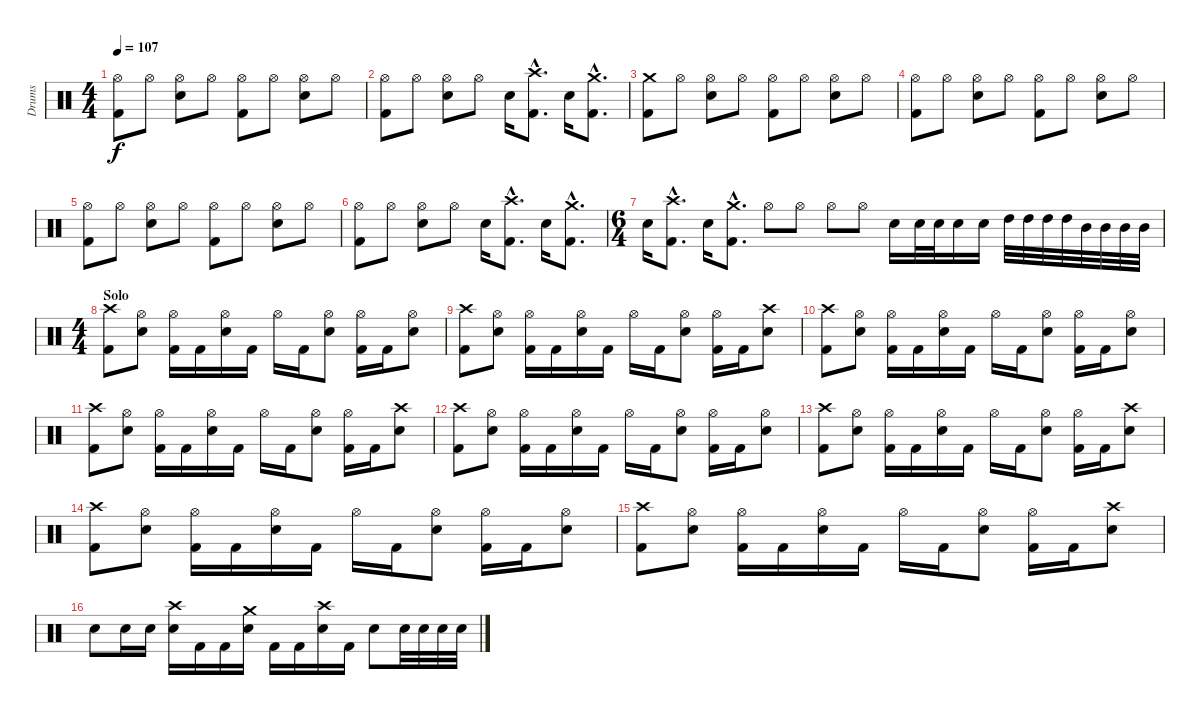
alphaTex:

\track ("Drums" "Drums") {instrument percussion}
\staff {score}
\articulation defaults
\ts (4 4)
\tempo 107
\clef neutral
\ks c
("Hi-Hat (open)" "Kick (hit) 2").8{dy f} "Hi-Hat (open)".8 ("Hi-Hat (open)" "Electric Snare (hit)").8 "Hi-Hat (open)".8 ("Hi-Hat (open)" "Kick (hit) 2").8 "Hi-Hat (open)".8 ("Hi-Hat (open)" "Electric Snare (hit)").8 "Hi-Hat (open)".8 |
("Hi-Hat (open)" "Kick (hit) 2").8 "Hi-Hat (open)".8 ("Hi-Hat (open)" "Electric Snare (hit)").8 "Hi-Hat (open)".8 "Electric Snare (hit)".16 ("Crash high (hit)"{hac} "Kick (hit) 2"{hac}).8{d} "Electric Snare (hit)".16 ("Crash medium (hit)"{hac} "Kick (hit) 2"{hac}).8{d} |
("Crash medium (hit)" "Kick (hit) 2").8 "Hi-Hat (open)".8 ("Hi-Hat (open)" "Electric Snare (hit)").8 "Hi-Hat (open)".8 ("Hi-Hat (open)" "Kick (hit) 2").8 "Hi-Hat (open)".8 ("Hi-Hat (open)" "Electric Snare (hit)").8 "Hi-Hat (open)".8 |
("Hi-Hat (open)" "Kick (hit) 2").8 "Hi-Hat (open)".8 ("Hi-Hat (open)" "Electric Snare (hit)").8 "Hi-Hat (open)".8 ("Hi-Hat (open)" "Kick (hit) 2").8 "Hi-Hat (open)".8 ("Hi-Hat (open)" "Electric Snare (hit)").8 "Hi-Hat (open)".8 |
("Hi-Hat (open)" "Kick (hit) 2").8 "Hi-Hat (open)".8 ("Hi-Hat (open)" "Electric Snare (hit)").8 "Hi-Hat (open)".8 ("Hi-Hat (open)" "Kick (hit) 2").8 "Hi-Hat (open)".8 ("Hi-Hat (open)" "Electric Snare (hit)").8 "Hi-Hat (open)".8 |
("Hi-Hat (open)" "Kick (hit) 2").8 "Hi-Hat (open)".8 ("Hi-Hat (open)" "Electric Snare (hit)").8 "Hi-Hat (open)".8 "Electric Snare (hit)".16 ("Crash high (hit)"{hac} "Kick (hit) 2"{hac}).8{d} "Electric Snare (hit)".16 ("Crash medium (hit)"{hac} "Kick (hit) 2"{hac}).8{d} |
\ts (6 4)
"Electric Snare (hit)".16 ("Crash high (hit)"{hac} "Kick (hit) 2"{hac}).8{d} "Electric Snare (hit)".16 ("Crash medium (hit)"{hac} "Kick (hit) 2"{hac}).8{d} "Hi-Hat (open)".8 "Hi-Hat (open)".8 "Hi-Hat (open)".8 "Hi-Hat (open)".8 "Electric Snare (hit)".16 "Electric Snare (hit)".32 "Electric Snare (hit)".32 "Electric Snare (hit)".16 "Electric Snare (hit)".16 "High Tom (hit)".32 "High Tom (hit)".32 "High Tom (hit)".32 "High Tom (hit)".32 "Mid Tom (hit)".32 "Mid Tom (hit)".32 "Mid Tom (hit)".32 "Mid Tom (hit)".32 |
\ts (4 4)
\section ("" "Solo")
("Crash high (hit)" "Kick (hit) 2").8 ("Hi-Hat (open)" "Electric Snare (hit)").8 ("Hi-Hat (open)" "Kick (hit) 2").16 "Kick (hit) 2".16 ("Hi-Hat (open)" "Electric Snare (hit)").16 "Kick (hit) 2".16 "Hi-Hat (open)".16 "Kick (hit) 2".16 ("Hi-Hat (open)" "Electric Snare (hit)").8 ("Hi-Hat (open)" "Kick (hit) 2").16 "Kick (hit) 2".16 ("Hi-Hat (open)" "Electric Snare (hit)").8 |
("Crash high (hit)" "Kick (hit) 2").8 ("Hi-Hat (open)" "Electric Snare (hit)").8 ("Hi-Hat (open)" "Kick (hit) 2").16 "Kick (hit) 2".16 ("Hi-Hat (open)" "Electric Snare (hit)").16 "Kick (hit) 2".16 "Hi-Hat (open)".16 "Kick (hit) 2".16 ("Hi-Hat (open)" "Electric Snare (hit)").8 ("Hi-Hat (open)" "Kick (hit) 2").16 "Kick (hit) 2".16 ("Crash high (hit)" "Electric Snare (hit)").8 |
("Crash high (hit)" "Kick (hit) 2").8 ("Hi-Hat (open)" "Electric Snare (hit)").8 ("Hi-Hat (open)" "Kick (hit) 2").16 "Kick (hit) 2".16 ("Hi-Hat (open)" "Electric Snare (hit)").16 "Kick (hit) 2".16 "Hi-Hat (open)".16 "Kick (hit) 2".16 ("Hi-Hat (open)" "Electric Snare (hit)").8 ("Hi-Hat (open)" "Kick (hit) 2").16 "Kick (hit) 2".16 ("Hi-Hat (open)" "Electric Snare (hit)").8 |
("Crash high (hit)" "Kick (hit) 2").8 ("Hi-Hat (open)" "Electric Snare (hit)").8 ("Hi-Hat (open)" "Kick (hit) 2").16 "Kick (hit) 2".16 ("Hi-Hat (open)" "Electric Snare (hit)").16 "Kick (hit) 2".16 "Hi-Hat (open)".16 "Kick (hit) 2".16 ("Hi-Hat (open)" "Electric Snare (hit)").8 ("Hi-Hat (open)" "Kick (hit) 2").16 "Kick (hit) 2".16 ("Crash high (hit)" "Electric Snare (hit)").8 |
("Crash high (hit)" "Kick (hit) 2").8 ("Hi-Hat (open)" "Electric Snare (hit)").8 ("Hi-Hat (open)" "Kick (hit) 2").16 "Kick (hit) 2".16 ("Hi-Hat (open)" "Electric Snare (hit)").16 "Kick (hit) 2".16 "Hi-Hat (open)".16 "Kick (hit) 2".16 ("Hi-Hat (open)" "Electric Snare (hit)").8 ("Hi-Hat (open)" "Kick (hit) 2").16 "Kick (hit) 2".16 ("Hi-Hat (open)" "Electric Snare (hit)").8 |
("Crash high (hit)" "Kick (hit) 2").8 ("Hi-Hat (open)" "Electric Snare (hit)").8 ("Hi-Hat (open)" "Kick (hit) 2").16 "Kick (hit) 2".16 ("Hi-Hat (open)" "Electric Snare (hit)").16 "Kick (hit) 2".16 "Hi-Hat (open)".16 "Kick (hit) 2".16 ("Hi-Hat (open)" "Electric Snare (hit)").8 ("Hi-Hat (open)" "Kick (hit) 2").16 "Kick (hit) 2".16 ("Crash high (hit)" "Electric Snare (hit)").8 |
("Crash high (hit)" "Kick (hit) 2").8 ("Hi-Hat (open)" "Electric Snare (hit)").8 ("Hi-Hat (open)" "Kick (hit) 2").16 "Kick (hit) 2".16 ("Hi-Hat (open)" "Electric Snare (hit)").16 "Kick (hit) 2".16 "Hi-Hat (open)".16 "Kick (hit) 2".16 ("Hi-Hat (open)" "Electric Snare (hit)").8 ("Hi-Hat (open)" "Kick (hit) 2").16 "Kick (hit) 2".16 ("Hi-Hat (open)" "Electric Snare (hit)").8 |
("Crash high (hit)" "Kick (hit) 2").8 ("Hi-Hat (open)" "Electric Snare (hit)").8 ("Hi-Hat (open)" "Kick (hit) 2").16 "Kick (hit) 2".16 ("Hi-Hat (open)" "Electric Snare (hit)").16 "Kick (hit) 2".16 "Hi-Hat (open)".16 "Kick (hit) 2".16 ("Hi-Hat (open)" "Electric Snare (hit)").8 ("Hi-Hat (open)" "Kick (hit) 2").16 "Kick (hit) 2".16 ("Crash high (hit)" "Electric Snare (hit)").8 |
"Electric Snare (hit)".8 "Electric Snare (hit)".16 "Electric Snare (hit)".16 ("Crash high (hit)" "Electric Snare (hit)").16 "Kick (hit) 2".16 "Kick (hit) 2".16 ("Crash medium (hit)" "Electric Snare (hit)").16 "Kick (hit) 2".16 "Kick (hit) 2".16 ("Crash high (hit)" "Electric Snare (hit)").16 "Kick (hit) 2".16 "Electric Snare (hit)".8 "Electric Snare (hit)".32 "Electric Snare (hit)".32 "Electric Snare (hit)".32 "Electric Snare (hit)".32
